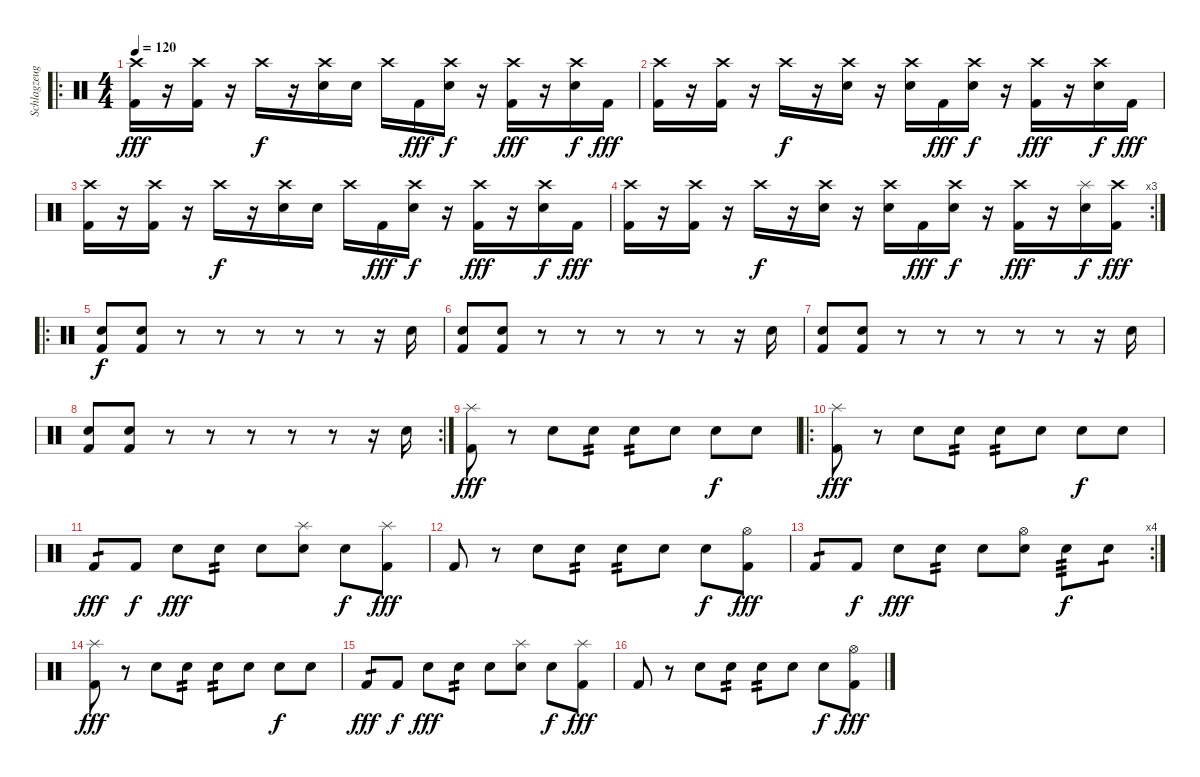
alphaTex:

\track ("Schlagzeug" "Schlagzeug") {instrument percussion}
\staff {score}
\articulation defaults
\ro
\ts (4 4)
\tempo 120
\clef neutral
\ks c
("Crash high (hit)" "Kick (hit) 2").16{dy fff} r.16 ("Crash high (hit)" "Kick (hit) 2").16 r.16 "Crash high (hit)".16{dy f} r.16 ("Crash high (hit)" "Snare (hit) 2").16 "Snare (hit) 2".16 "Crash high (hit)".16 "Kick (hit) 2".16{dy fff} ("Crash high (hit)" "Snare (hit) 2").16{dy f} r.16 ("Crash high (hit)" "Kick (hit) 2").16{dy fff} r.16 ("Crash high (hit)" "Snare (hit) 2").16{dy f} "Kick (hit) 2".16{dy fff} |
("Crash high (hit)" "Kick (hit) 2").16 r.16 ("Crash high (hit)" "Kick (hit) 2").16 r.16 "Crash high (hit)".16{dy f} r.16 ("Crash high (hit)" "Snare (hit) 2").16 r.16 ("Crash high (hit)" "Snare (hit) 2").16 "Kick (hit) 2".16{dy fff} ("Crash high (hit)" "Snare (hit) 2").16{dy f} r.16 ("Crash high (hit)" "Kick (hit) 2").16{dy fff} r.16 ("Crash high (hit)" "Snare (hit) 2").16{dy f} "Kick (hit) 2".16{dy fff} |
("Crash high (hit)" "Kick (hit) 2").16 r.16 ("Crash high (hit)" "Kick (hit) 2").16 r.16 "Crash high (hit)".16{dy f} r.16 ("Crash high (hit)" "Snare (hit) 2").16 "Snare (hit) 2".16 "Crash high (hit)".16 "Kick (hit) 2".16{dy fff} ("Crash high (hit)" "Snare (hit) 2").16{dy f} r.16 ("Crash high (hit)" "Kick (hit) 2").16{dy fff} r.16 ("Crash high (hit)" "Snare (hit) 2").16{dy f} "Kick (hit) 2".16{dy fff} |
\rc 3
("Crash high (hit)" "Kick (hit) 2").16 r.16 ("Crash high (hit)" "Kick (hit) 2").16 r.16 "Crash high (hit)".16{dy f} r.16 ("Crash high (hit)" "Snare (hit) 2").16 r.16 ("Crash high (hit)" "Snare (hit) 2").16 "Kick (hit) 2".16{dy fff} ("Crash high (hit)" "Snare (hit) 2").16{dy f} r.16 ("Crash high (hit)" "Kick (hit) 2").16{dy fff} r.16 ("Splash (hit)" "Snare (hit) 2").16{dy f} ("Crash high (hit)" "Kick (hit) 2").16{dy fff} |
\ro
("Snare (hit) 2" "Kick (hit) 2").8{dy f} ("Snare (hit) 2" "Kick (hit) 2").8 r.8 r.8 r.8 r.8 r.8 r.16 "Snare (hit) 2".16 |
("Snare (hit) 2" "Kick (hit) 2").8 ("Snare (hit) 2" "Kick (hit) 2").8 r.8 r.8 r.8 r.8 r.8 r.16 "Snare (hit) 2".16 |
("Snare (hit) 2" "Kick (hit) 2").8 ("Snare (hit) 2" "Kick (hit) 2").8 r.8 r.8 r.8 r.8 r.8 r.16 "Snare (hit) 2".16 |
\rc 2
("Snare (hit) 2" "Kick (hit) 2").8 ("Snare (hit) 2" "Kick (hit) 2").8 r.8 r.8 r.8 r.8 r.8 r.16 "Snare (hit) 2".16 |
("Kick (hit) 2" "Splash (hit)").8{dy fff} r.8 "Snare (hit) 2".8 "Snare (hit) 2".8{tp 2} "Snare (hit) 2".8{tp 2} "Snare (hit) 2".8 "Snare (hit) 2".8{dy f} "Snare (hit) 2".8 |
\ro
("Kick (hit) 2" "Splash (hit)").8{dy fff} r.8 "Snare (hit) 2".8 "Snare (hit) 2".8{tp 2} "Snare (hit) 2".8{tp 2} "Snare (hit) 2".8 "Snare (hit) 2".8{dy f} "Snare (hit) 2".8 |
"Kick (hit) 2".8{tp 1 dy fff} "Kick (hit) 2".8{dy f} "Snare (hit) 2".8{dy fff} "Snare (hit) 2".8{tp 2} "Snare (hit) 2".8 ("Snare (hit) 2" "Splash (hit)").8 "Snare (hit) 2".8{dy f} ("Kick (hit) 2" "Splash (hit)").8{dy fff} |
"Kick (hit) 2".8 r.8 "Snare (hit) 2".8 "Snare (hit) 2".8{tp 2} "Snare (hit) 2".8{tp 2} "Snare (hit) 2".8 "Snare (hit) 2".8{dy f} ("Kick (hit) 2" "Hi-Hat (open)").8{dy fff} |
\rc 4 "Kick (hit) 2".8{tp 1} "Kick (hit) 2".8{dy f} "Snare (hit) 2".8{dy fff} "Snare (hit) 2".8{tp 2} "Snare (hit) 2".8
("Snare (hit) 2" "Hi-Hat (open)").8 "Snare (hit) 2".8{tp 3 dy f} "Snare (hit) 2".8{tp 1} |
("Kick (hit) 2" "Splash (hit)").8{dy fff} r.8 "Snare (hit) 2".8 "Snare (hit) 2".8{tp 2} "Snare (hit) 2".8{tp 2} "Snare (hit) 2".8 "Snare (hit) 2".8{dy f} "Snare (hit) 2".8 |
"Kick (hit) 2".8{tp 1 dy fff} "Kick (hit) 2".8{dy f} "Snare (hit) 2".8{dy fff} "Snare (hit) 2".8{tp 2} "Snare (hit) 2".8 ("Snare (hit) 2" "Splash (hit)").8 "Snare (hit) 2".8{dy f} ("Kick (hit) 2" "Splash (hit)").8{dy fff} |
"Kick (hit) 2".8 r.8 "Snare (hit) 2".8 "Snare (hit) 2".8{tp 2} "Snare (hit) 2".8{tp 2} "Snare (hit) 2".8 "Snare (hit) 2".8{dy f} ("Kick (hit) 2" "Hi-Hat (open)").8{dy fff}
